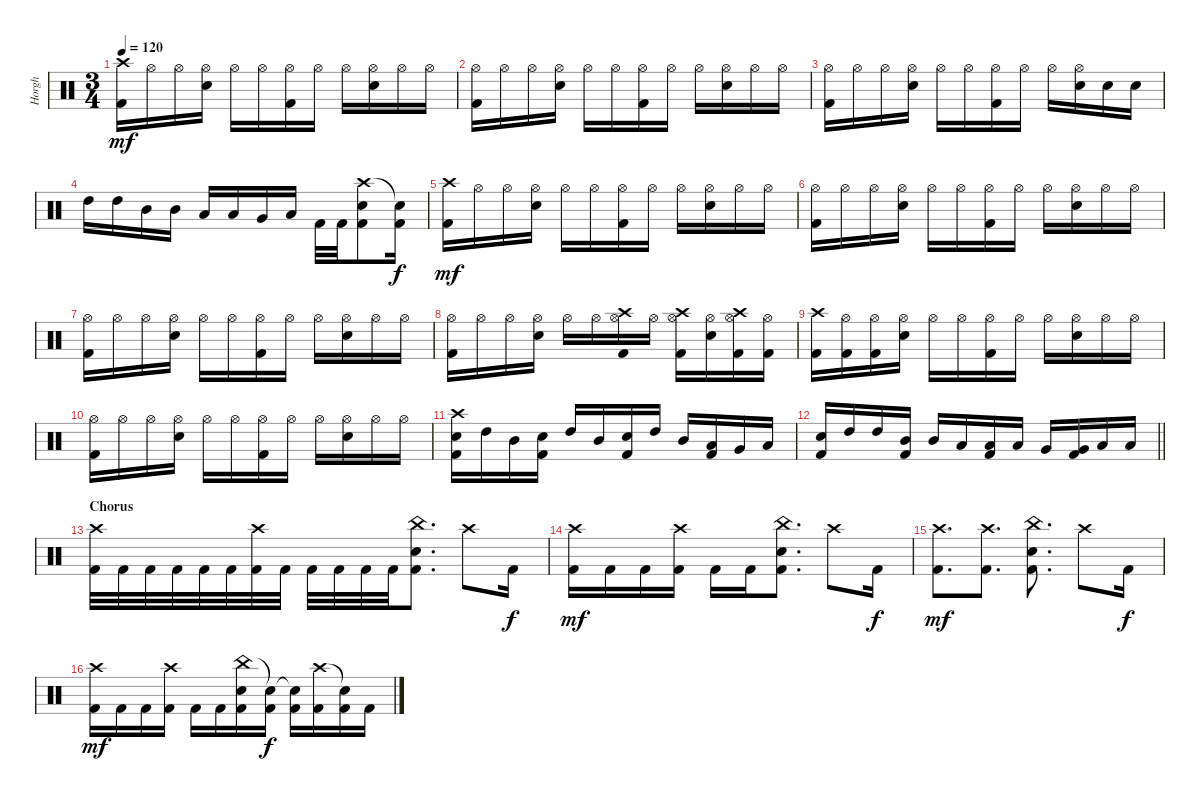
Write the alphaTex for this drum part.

\track ("Horgh" "Horgh") {instrument percussion}
\staff {score}
\articulation defaults
\ts (3 4)
\tempo 120
\clef neutral
\ks c
("Crash high (hit)" "Kick (hit) 2").16{dy mf} "Hi-Hat (open)".16 "Hi-Hat (open)".16 ("Snare (hit) 2" "Hi-Hat (open)").16 "Hi-Hat (open)".16 "Hi-Hat (open)".16 ("Hi-Hat (open)" "Kick (hit) 2").16 "Hi-Hat (open)".16 "Hi-Hat (open)".16 ("Snare (hit) 2" "Hi-Hat (open)").16 "Hi-Hat (open)".16 "Hi-Hat (open)".16 |
("Hi-Hat (open)" "Kick (hit) 2").16 "Hi-Hat (open)".16 "Hi-Hat (open)".16 ("Snare (hit) 2" "Hi-Hat (open)").16 "Hi-Hat (open)".16 "Hi-Hat (open)".16 ("Hi-Hat (open)" "Kick (hit) 2").16 "Hi-Hat (open)".16 "Hi-Hat (open)".16 ("Snare (hit) 2" "Hi-Hat (open)").16 "Hi-Hat (open)".16 "Hi-Hat (open)".16 |
("Hi-Hat (open)" "Kick (hit) 2").16 "Hi-Hat (open)".16 "Hi-Hat (open)".16 ("Snare (hit) 2" "Hi-Hat (open)").16 "Hi-Hat (open)".16 "Hi-Hat (open)".16 ("Hi-Hat (open)" "Kick (hit) 2").16 "Hi-Hat (open)".16 "Hi-Hat (open)".16 ("Snare (hit) 2" "Hi-Hat (open)").16 "Snare (hit) 2".16 "Snare (hit) 2".16 |
"High Tom (hit)".16 "High Tom (hit)".16 "Mid Tom (hit)".16 "Mid Tom (hit)".16 "Low Tom (hit)".16 "Low Tom (hit)".16 "Very Low Tom (hit)".16 "Low Floor Tom (hit)".16 "Kick (hit) 2".32 "Kick (hit) 2".32 ("Crash high (hit)" "Snare (hit) 2" "Kick (hit) 2").8 ("Snare (hit)"{t} "Kick (hit) 2").16{dy f} |
("Crash high (hit)" "Kick (hit) 2").16{dy mf} "Hi-Hat (open)".16 "Hi-Hat (open)".16 ("Snare (hit) 2" "Hi-Hat (open)").16 "Hi-Hat (open)".16 "Hi-Hat (open)".16 ("Hi-Hat (open)" "Kick (hit) 2").16 "Hi-Hat (open)".16 "Hi-Hat (open)".16 ("Snare (hit) 2" "Hi-Hat (open)").16 "Hi-Hat (open)".16 "Hi-Hat (open)".16 |
("Hi-Hat (open)" "Kick (hit) 2").16 "Hi-Hat (open)".16 "Hi-Hat (open)".16 ("Snare (hit) 2" "Hi-Hat (open)").16 "Hi-Hat (open)".16 "Hi-Hat (open)".16 ("Hi-Hat (open)" "Kick (hit) 2").16 "Hi-Hat (open)".16 "Hi-Hat (open)".16 ("Snare (hit) 2" "Hi-Hat (open)").16 "Hi-Hat (open)".16 "Hi-Hat (open)".16 |
("Hi-Hat (open)" "Kick (hit) 2").16 "Hi-Hat (open)".16 "Hi-Hat (open)".16 ("Snare (hit) 2" "Hi-Hat (open)").16 "Hi-Hat (open)".16 "Hi-Hat (open)".16 ("Hi-Hat (open)" "Kick (hit) 2").16 "Hi-Hat (open)".16 "Hi-Hat (open)".16 ("Snare (hit) 2" "Hi-Hat (open)").16 "Hi-Hat (open)".16 "Hi-Hat (open)".16 |
("Hi-Hat (open)" "Kick (hit) 2").16 "Hi-Hat (open)".16 "Hi-Hat (open)".16 ("Snare (hit) 2" "Hi-Hat (open)").16 "Hi-Hat (open)".16 "Hi-Hat (open)".16 ("Crash high (hit)" "Hi-Hat (open)" "Kick (hit) 2").16 "Hi-Hat (open)".16 ("Crash high (hit)" "Hi-Hat (open)" "Kick (hit) 2").16 ("Snare (hit) 2" "Hi-Hat (open)").16 ("Crash high (hit)" "Hi-Hat (open)" "Kick (hit) 2").16 ("Hi-Hat (open)" "Kick (hit) 2").16 |
("Crash high (hit)" "Kick (hit) 2").16 ("Hi-Hat (open)" "Kick (hit) 2").16 ("Hi-Hat (open)" "Kick (hit) 2").16 ("Snare (hit) 2" "Hi-Hat (open)").16 "Hi-Hat (open)".16 "Hi-Hat (open)".16 ("Hi-Hat (open)" "Kick (hit) 2").16 "Hi-Hat (open)".16 "Hi-Hat (open)".16 ("Snare (hit) 2" "Hi-Hat (open)").16 "Hi-Hat (open)".16 "Hi-Hat (open)".16 |
("Hi-Hat (open)" "Kick (hit) 2").16 "Hi-Hat (open)".16 "Hi-Hat (open)".16 ("Snare (hit) 2" "Hi-Hat (open)").16 "Hi-Hat (open)".16 "Hi-Hat (open)".16 ("Hi-Hat (open)" "Kick (hit) 2").16 "Hi-Hat (open)".16 "Hi-Hat (open)".16 ("Snare (hit) 2" "Hi-Hat (open)").16 "Hi-Hat (open)".16 "Hi-Hat (open)".16 |
("Crash high (hit)" "Snare (hit) 2" "Kick (hit) 2").16 "High Tom (hit)".16 "Mid Tom (hit)".16 ("Snare (hit) 2" "Kick (hit) 2").16 "High Tom (hit)".16 "Mid Tom (hit)".16 ("Snare (hit) 2" "Kick (hit) 2").16 "High Tom (hit)".16 "Mid Tom (hit)".16 ("Low Tom (hit)" "Kick (hit) 2").16 "Very Low Tom (hit)".16 "Low Floor Tom (hit)".16 |
\barLineRight lightlight
("Snare (hit) 2" "Kick (hit) 2").16 "High Tom (hit)".16 "High Tom (hit)".16 ("Mid Tom (hit)" "Kick (hit) 2").16 "Mid Tom (hit)".16 "Low Tom (hit)".16 ("Low Tom (hit)" "Kick (hit) 2").16 "Low Tom (hit)".16 "Very Low Tom (hit)".16 ("Very Low Tom (hit)" "Kick (hit) 2").16 "Low Floor Tom (hit)".16 "Low Tom (hit)".16 |
\section ("" "Chorus")
("Crash high (hit)" "Kick (hit) 2").32 "Kick (hit) 2".32 "Kick (hit) 2".32 "Kick (hit) 2".32 "Kick (hit) 2".32 "Kick (hit) 2".32 ("Crash high (hit)" "Kick (hit) 2").32 "Kick (hit) 2".32 "Kick (hit) 2".32 "Kick (hit) 2".32 "Kick (hit) 2".32 "Kick (hit) 2".32 ("China (hit)" "Snare (hit) 2" "Kick (hit) 2").8{d} "Crash high (hit)".8 "Kick (hit) 2".16{dy f} |
("Crash high (hit)" "Kick (hit) 2").16{dy mf} "Kick (hit) 2".16 "Kick (hit) 2".16 ("Crash high (hit)" "Kick (hit) 2").16 "Kick (hit) 2".16 "Kick (hit) 2".16 ("China (hit)" "Snare (hit) 2" "Kick (hit) 2").8{d} "Crash high (hit)".8 "Kick (hit) 2".16{dy f} |
("Crash high (hit)" "Kick (hit) 2").8{d dy mf} ("Crash high (hit)" "Kick (hit) 2").8{d} ("China (hit)" "Snare (hit) 2" "Kick (hit) 2").8{d} "Crash high (hit)".8 "Kick (hit) 2".16{dy f} |
("Crash high (hit)" "Kick (hit) 2").16{dy mf} "Kick (hit) 2".16 "Kick (hit) 2".16 ("Crash high (hit)" "Kick (hit) 2").16 "Kick (hit) 2".16 "Kick (hit) 2".16 ("China (hit)" "Snare (hit) 2" "Kick (hit) 2").16 ("Snare (hit)"{t} "Kick (hit) 2").16{dy f} ("Snare (hit)"{t} "Kick (hit) 2").16 ("Crash high (hit)" "Kick (hit) 2").16 ("Snare (hit)"{t} "Kick (hit) 2").16 "Kick (hit) 2".16
